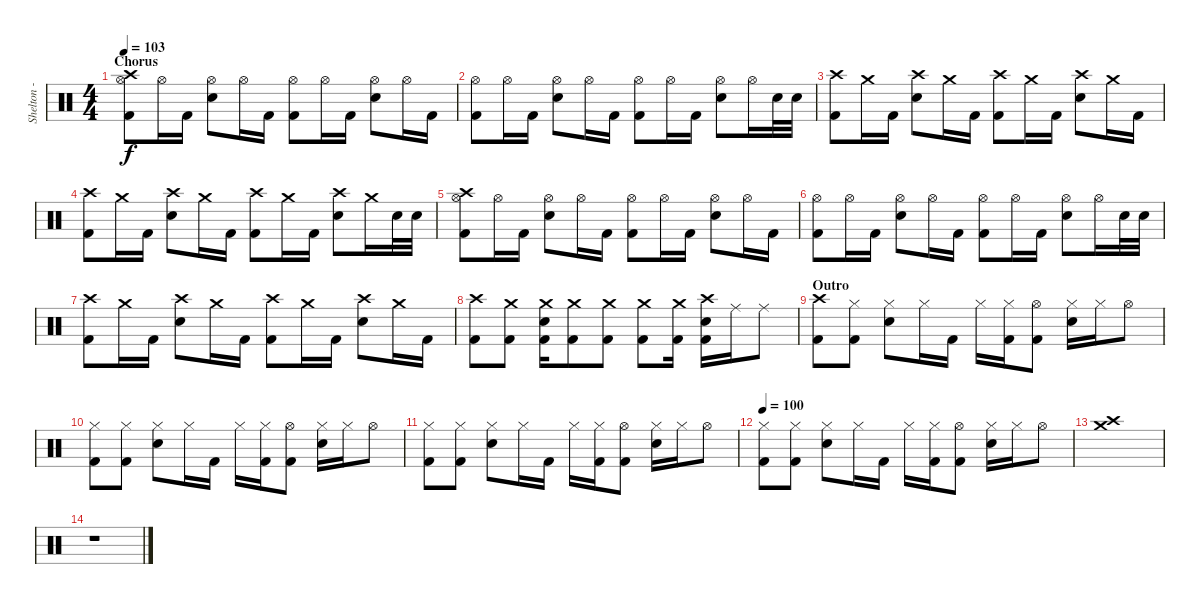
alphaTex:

\track ("Shelton - Drums" "Shelton - ") {instrument percussion}
\staff {score}
\articulation defaults
\ts (4 4)
\section ("" "Chorus")
\tempo 103
\clef neutral
\ks c
("Hi-Hat (open)" "Crash high (hit)" "Kick (hit) 2").8{dy f} "Hi-Hat (open)".16 "Kick (hit) 2".16 ("Hi-Hat (open)" "Electric Snare (hit)").8 "Hi-Hat (open)".16 "Kick (hit) 2".16 ("Hi-Hat (open)" "Kick (hit) 2").8 "Hi-Hat (open)".16 "Kick (hit) 2".16 ("Hi-Hat (open)" "Electric Snare (hit)").8 "Hi-Hat (open)".16 "Kick (hit) 2".16 |
("Hi-Hat (open)" "Kick (hit) 2").8 "Hi-Hat (open)".16 "Kick (hit) 2".16 ("Hi-Hat (open)" "Electric Snare (hit)").8 "Hi-Hat (open)".16 "Kick (hit) 2".16 ("Hi-Hat (open)" "Kick (hit) 2").8 "Hi-Hat (open)".16 "Kick (hit) 2".16 ("Hi-Hat (open)" "Electric Snare (hit)").8 "Hi-Hat (open)".16 "Electric Snare (hit)".32 "Electric Snare (hit)".32 |
("Crash high (hit)" "Kick (hit) 2").8 "Crash medium (hit)".16 "Kick (hit) 2".16 ("Crash high (hit)" "Electric Snare (hit)").8 "Crash medium (hit)".16 "Kick (hit) 2".16 ("Crash high (hit)" "Kick (hit) 2").8 "Crash medium (hit)".16 "Kick (hit) 2".16 ("Crash high (hit)" "Electric Snare (hit)").8 "Crash medium (hit)".16 "Kick (hit) 2".16 |
("Crash high (hit)" "Kick (hit) 2").8 "Crash medium (hit)".16 "Kick (hit) 2".16 ("Crash high (hit)" "Electric Snare (hit)").8 "Crash medium (hit)".16 "Kick (hit) 2".16 ("Crash high (hit)" "Kick (hit) 2").8 "Crash medium (hit)".16 "Kick (hit) 2".16 ("Crash high (hit)" "Electric Snare (hit)").8 "Crash medium (hit)".16 "Electric Snare (hit)".32 "Electric Snare (hit)".32 |
("Hi-Hat (open)" "Crash high (hit)" "Kick (hit) 2").8 "Hi-Hat (open)".16 "Kick (hit) 2".16 ("Hi-Hat (open)" "Electric Snare (hit)").8 "Hi-Hat (open)".16 "Kick (hit) 2".16 ("Hi-Hat (open)" "Kick (hit) 2").8 "Hi-Hat (open)".16 "Kick (hit) 2".16 ("Hi-Hat (open)" "Electric Snare (hit)").8 "Hi-Hat (open)".16 "Kick (hit) 2".16 |
("Hi-Hat (open)" "Kick (hit) 2").8 "Hi-Hat (open)".16 "Kick (hit) 2".16 ("Hi-Hat (open)" "Electric Snare (hit)").8 "Hi-Hat (open)".16 "Kick (hit) 2".16 ("Hi-Hat (open)" "Kick (hit) 2").8 "Hi-Hat (open)".16 "Kick (hit) 2".16 ("Hi-Hat (open)" "Electric Snare (hit)").8 "Hi-Hat (open)".16 "Electric Snare (hit)".32 "Electric Snare (hit)".32 |
("Crash high (hit)" "Kick (hit) 2").8 "Crash medium (hit)".16 "Kick (hit) 2".16 ("Crash high (hit)" "Electric Snare (hit)").8 "Crash medium (hit)".16 "Kick (hit) 2".16 ("Crash high (hit)" "Kick (hit) 2").8 "Crash medium (hit)".16 "Kick (hit) 2".16 ("Crash high (hit)" "Electric Snare (hit)").8 "Crash medium (hit)".16 "Kick (hit) 2".16 |
("Crash high (hit)" "Kick (hit) 2").8 ("Crash medium (hit)" "Kick (hit) 2").8 ("Crash medium (hit)" "Electric Snare (hit)" "Kick (hit) 2").16 ("Crash medium (hit)" "Kick (hit) 2").8 ("Crash medium (hit)" "Kick (hit) 2").8 ("Crash medium (hit)" "Kick (hit) 2").8 ("Crash medium (hit)" "Kick (hit) 2").16 ("Crash high (hit)" "Electric Snare (hit)" "Kick (hit) 2").16 "Ride (middle)".16 "Ride (middle)".8 |
\section ("" "Outro")
("Crash high (hit)" "Kick (hit) 2").8 ("Hi-Hat (closed)" "Kick (hit) 2").8 ("Hi-Hat (closed)" "Electric Snare (hit)").8 "Hi-Hat (closed)".16 "Kick (hit) 2".16 "Hi-Hat (closed)".16 ("Hi-Hat (closed)" "Kick (hit) 2").16 ("Hi-Hat (open)" "Kick (hit) 2").8 ("Hi-Hat (closed)" "Electric Snare (hit)").16 "Hi-Hat (closed)".16 "Hi-Hat (open)".8 |
("Hi-Hat (closed)" "Kick (hit) 2").8 ("Hi-Hat (closed)" "Kick (hit) 2").8 ("Hi-Hat (closed)" "Electric Snare (hit)").8 "Hi-Hat (closed)".16 "Kick (hit) 2".16 "Hi-Hat (closed)".16 ("Hi-Hat (closed)" "Kick (hit) 2").16 ("Hi-Hat (open)" "Kick (hit) 2").8 ("Hi-Hat (closed)" "Electric Snare (hit)").16 "Hi-Hat (closed)".16 "Hi-Hat (open)".8 |
("Hi-Hat (closed)" "Kick (hit) 2").8 ("Hi-Hat (closed)" "Kick (hit) 2").8 ("Hi-Hat (closed)" "Electric Snare (hit)").8 "Hi-Hat (closed)".16 "Kick (hit) 2".16 "Hi-Hat (closed)".16 ("Hi-Hat (closed)" "Kick (hit) 2").16 ("Hi-Hat (open)" "Kick (hit) 2").8 ("Hi-Hat (closed)" "Electric Snare (hit)").16 "Hi-Hat (closed)".16 "Hi-Hat (open)".8 |
\tempo 100
("Hi-Hat (closed)" "Kick (hit) 2").8 ("Hi-Hat (closed)" "Kick (hit) 2").8 ("Hi-Hat (closed)" "Electric Snare (hit)").8 "Hi-Hat (closed)".16 "Kick (hit) 2".16 "Hi-Hat (closed)".16 ("Hi-Hat (closed)" "Kick (hit) 2").16 ("Hi-Hat (open)" "Kick (hit) 2").8 ("Hi-Hat (closed)" "Electric Snare (hit)").16 "Hi-Hat (closed)".16 "Hi-Hat (open)".8 |
("Crash high (hit)" "Crash medium (hit)").1 |
r.1
